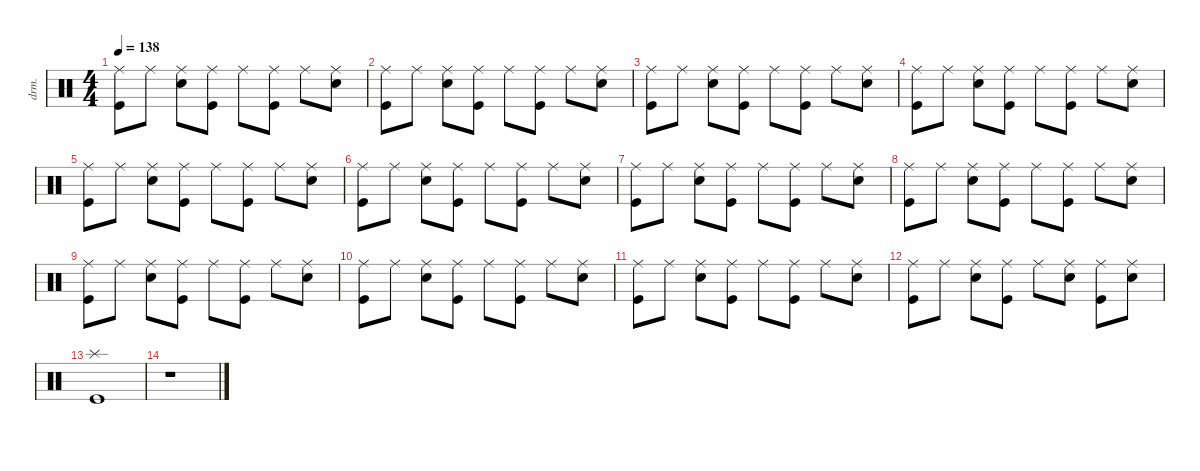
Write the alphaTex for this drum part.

\defaultSystemsLayout 4
\hideDynamics
\bracketExtendMode nobrackets
\otherSystemsTrackNameOrientation horizontal
\track ("Drums" "drm.") {instrument percussion}
\staff {score}
\articulation defaults
\ts (4 4)
\tempo 138
\clef neutral
\ks c
("Ride (middle)" "Kick (hit)").8{dy f beam Down} "Ride (middle)".8{beam Down} ("Ride (middle)" "Snare (hit) 2").8{beam Down} ("Ride (middle)" "Kick (hit)").8{beam Down} "Ride (middle)".8{beam Down} ("Ride (middle)" "Kick (hit)").8{beam Down} "Ride (middle)".8{beam Down} ("Ride (middle)" "Snare (hit) 2").8{beam Down} |
("Ride (middle)" "Kick (hit)").8{beam Down} "Ride (middle)".8{beam Down} ("Ride (middle)" "Snare (hit) 2").8{beam Down} ("Ride (middle)" "Kick (hit)").8{beam Down} "Ride (middle)".8{beam Down} ("Ride (middle)" "Kick (hit)").8{beam Down} "Ride (middle)".8{beam Down} ("Ride (middle)" "Snare (hit) 2").8{beam Down} |
("Ride (middle)" "Kick (hit)").8{beam Down} "Ride (middle)".8{beam Down} ("Ride (middle)" "Snare (hit) 2").8{beam Down} ("Ride (middle)" "Kick (hit)").8{beam Down} "Ride (middle)".8{beam Down} ("Ride (middle)" "Kick (hit)").8{beam Down} "Ride (middle)".8{beam Down} ("Ride (middle)" "Snare (hit) 2").8{beam Down} |
("Ride (middle)" "Kick (hit)").8{beam Down} "Ride (middle)".8{beam Down} ("Ride (middle)" "Snare (hit) 2").8{beam Down} ("Ride (middle)" "Kick (hit)").8{beam Down} "Ride (middle)".8{beam Down} ("Ride (middle)" "Kick (hit)").8{beam Down} "Ride (middle)".8{beam Down} ("Ride (middle)" "Snare (hit) 2").8{beam Down} |
("Ride (middle)" "Kick (hit)").8{beam Down} "Ride (middle)".8{beam Down} ("Ride (middle)" "Snare (hit) 2").8{beam Down} ("Ride (middle)" "Kick (hit)").8{beam Down} "Ride (middle)".8{beam Down} ("Ride (middle)" "Kick (hit)").8{beam Down} "Ride (middle)".8{beam Down} ("Ride (middle)" "Snare (hit) 2").8{beam Down} |
("Ride (middle)" "Kick (hit)").8{beam Down} "Ride (middle)".8{beam Down} ("Ride (middle)" "Snare (hit) 2").8{beam Down} ("Ride (middle)" "Kick (hit)").8{beam Down} "Ride (middle)".8{beam Down} ("Ride (middle)" "Kick (hit)").8{beam Down} "Ride (middle)".8{beam Down} ("Ride (middle)" "Snare (hit) 2").8{beam Down} |
("Ride (middle)" "Kick (hit)").8{beam Down} "Ride (middle)".8{beam Down} ("Ride (middle)" "Snare (hit) 2").8{beam Down} ("Ride (middle)" "Kick (hit)").8{beam Down} "Ride (middle)".8{beam Down} ("Ride (middle)" "Kick (hit)").8{beam Down} "Ride (middle)".8{beam Down} ("Ride (middle)" "Snare (hit) 2").8{beam Down} |
("Ride (middle)" "Kick (hit)").8{beam Down} "Ride (middle)".8{beam Down} ("Ride (middle)" "Snare (hit) 2").8{beam Down} ("Ride (middle)" "Kick (hit)").8{beam Down} "Ride (middle)".8{beam Down} ("Ride (middle)" "Kick (hit)").8{beam Down} "Ride (middle)".8{beam Down} ("Ride (middle)" "Snare (hit) 2").8{beam Down} |
("Ride (middle)" "Kick (hit)").8{beam Down} "Ride (middle)".8{beam Down} ("Ride (middle)" "Snare (hit) 2").8{beam Down} ("Ride (middle)" "Kick (hit)").8{beam Down} "Ride (middle)".8{beam Down} ("Ride (middle)" "Kick (hit)").8{beam Down} "Ride (middle)".8{beam Down} ("Ride (middle)" "Snare (hit) 2").8{beam Down} |
("Ride (middle)" "Kick (hit)").8{beam Down} "Ride (middle)".8{beam Down} ("Ride (middle)" "Snare (hit) 2").8{beam Down} ("Ride (middle)" "Kick (hit)").8{beam Down} "Ride (middle)".8{beam Down} ("Ride (middle)" "Kick (hit)").8{beam Down} "Ride (middle)".8{beam Down} ("Ride (middle)" "Snare (hit) 2").8{beam Down} |
("Ride (middle)" "Kick (hit)").8{beam Down} "Ride (middle)".8{beam Down} ("Ride (middle)" "Snare (hit) 2").8{beam Down} ("Ride (middle)" "Kick (hit)").8{beam Down} "Ride (middle)".8{beam Down} ("Ride (middle)" "Kick (hit)").8{beam Down} "Ride (middle)".8{beam Down} ("Ride (middle)" "Snare (hit) 2").8{beam Down} |
("Ride (middle)" "Kick (hit)").8{beam Down} "Ride (middle)".8{beam Down} ("Ride (middle)" "Snare (hit) 2").8{beam Down} ("Ride (middle)" "Kick (hit)").8{beam Down} "Ride (middle)".8{beam Down} ("Ride (middle)" "Snare (hit) 2").8{beam Down} ("Ride (middle)" "Kick (hit)").8{beam Down} ("Ride (middle)" "Snare (hit) 2").8{beam Down} |
("Splash (hit)" "Kick (hit)").1{beam Down} |
r.1{beam Down}
